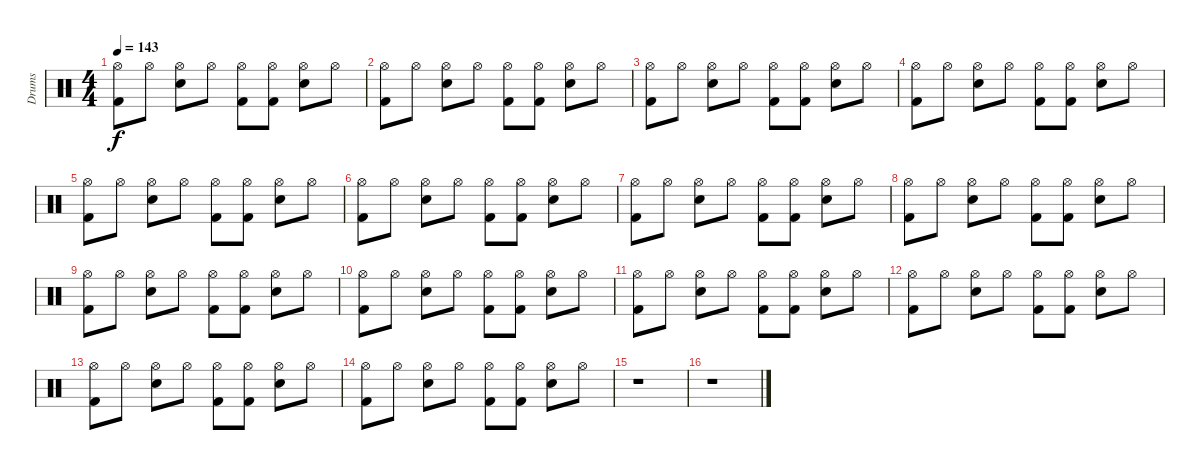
\track ("Drums" "Drums") {instrument percussion}
\staff {score}
\articulation defaults
\ts (4 4)
\tempo 143
\clef neutral
\ks c
("Hi-Hat (open)" "Kick (hit) 2").8{dy f} "Hi-Hat (open)".8 ("Hi-Hat (open)" "Snare (hit) 2").8 "Hi-Hat (open)".8 ("Hi-Hat (open)" "Kick (hit) 2").8 ("Hi-Hat (open)" "Kick (hit) 2").8 ("Hi-Hat (open)" "Snare (hit) 2").8 "Hi-Hat (open)".8 |
("Hi-Hat (open)" "Kick (hit) 2").8 "Hi-Hat (open)".8 ("Hi-Hat (open)" "Snare (hit) 2").8 "Hi-Hat (open)".8 ("Hi-Hat (open)" "Kick (hit) 2").8 ("Hi-Hat (open)" "Kick (hit) 2").8 ("Hi-Hat (open)" "Snare (hit) 2").8 "Hi-Hat (open)".8 |
("Hi-Hat (open)" "Kick (hit) 2").8 "Hi-Hat (open)".8 ("Hi-Hat (open)" "Snare (hit) 2").8 "Hi-Hat (open)".8 ("Hi-Hat (open)" "Kick (hit) 2").8 ("Hi-Hat (open)" "Kick (hit) 2").8 ("Hi-Hat (open)" "Snare (hit) 2").8 "Hi-Hat (open)".8 |
("Hi-Hat (open)" "Kick (hit) 2").8 "Hi-Hat (open)".8 ("Hi-Hat (open)" "Snare (hit) 2").8 "Hi-Hat (open)".8 ("Hi-Hat (open)" "Kick (hit) 2").8 ("Hi-Hat (open)" "Kick (hit) 2").8 ("Hi-Hat (open)" "Snare (hit) 2").8 "Hi-Hat (open)".8 |
("Hi-Hat (open)" "Kick (hit) 2").8 "Hi-Hat (open)".8 ("Hi-Hat (open)" "Snare (hit) 2").8 "Hi-Hat (open)".8 ("Hi-Hat (open)" "Kick (hit) 2").8 ("Hi-Hat (open)" "Kick (hit) 2").8 ("Hi-Hat (open)" "Snare (hit) 2").8 "Hi-Hat (open)".8 |
("Hi-Hat (open)" "Kick (hit) 2").8 "Hi-Hat (open)".8 ("Hi-Hat (open)" "Snare (hit) 2").8 "Hi-Hat (open)".8 ("Hi-Hat (open)" "Kick (hit) 2").8 ("Hi-Hat (open)" "Kick (hit) 2").8 ("Hi-Hat (open)" "Snare (hit) 2").8 "Hi-Hat (open)".8 |
("Hi-Hat (open)" "Kick (hit) 2").8 "Hi-Hat (open)".8 ("Hi-Hat (open)" "Snare (hit) 2").8 "Hi-Hat (open)".8 ("Hi-Hat (open)" "Kick (hit) 2").8 ("Hi-Hat (open)" "Kick (hit) 2").8 ("Hi-Hat (open)" "Snare (hit) 2").8 "Hi-Hat (open)".8 |
("Hi-Hat (open)" "Kick (hit) 2").8 "Hi-Hat (open)".8 ("Hi-Hat (open)" "Snare (hit) 2").8 "Hi-Hat (open)".8 ("Hi-Hat (open)" "Kick (hit) 2").8 ("Hi-Hat (open)" "Kick (hit) 2").8 ("Hi-Hat (open)" "Snare (hit) 2").8 "Hi-Hat (open)".8 |
("Hi-Hat (open)" "Kick (hit) 2").8 "Hi-Hat (open)".8 ("Hi-Hat (open)" "Snare (hit) 2").8 "Hi-Hat (open)".8 ("Hi-Hat (open)" "Kick (hit) 2").8 ("Hi-Hat (open)" "Kick (hit) 2").8 ("Hi-Hat (open)" "Snare (hit) 2").8 "Hi-Hat (open)".8 |
("Hi-Hat (open)" "Kick (hit) 2").8 "Hi-Hat (open)".8 ("Hi-Hat (open)" "Snare (hit) 2").8 "Hi-Hat (open)".8 ("Hi-Hat (open)" "Kick (hit) 2").8 ("Hi-Hat (open)" "Kick (hit) 2").8 ("Hi-Hat (open)" "Snare (hit) 2").8 "Hi-Hat (open)".8 |
("Hi-Hat (open)" "Kick (hit) 2").8 "Hi-Hat (open)".8 ("Hi-Hat (open)" "Snare (hit) 2").8 "Hi-Hat (open)".8 ("Hi-Hat (open)" "Kick (hit) 2").8 ("Hi-Hat (open)" "Kick (hit) 2").8 ("Hi-Hat (open)" "Snare (hit) 2").8 "Hi-Hat (open)".8 |
("Hi-Hat (open)" "Kick (hit) 2").8 "Hi-Hat (open)".8 ("Hi-Hat (open)" "Snare (hit) 2").8 "Hi-Hat (open)".8 ("Hi-Hat (open)" "Kick (hit) 2").8 ("Hi-Hat (open)" "Kick (hit) 2").8 ("Hi-Hat (open)" "Snare (hit) 2").8 "Hi-Hat (open)".8 |
("Hi-Hat (open)" "Kick (hit) 2").8 "Hi-Hat (open)".8 ("Hi-Hat (open)" "Snare (hit) 2").8 "Hi-Hat (open)".8 ("Hi-Hat (open)" "Kick (hit) 2").8 ("Hi-Hat (open)" "Kick (hit) 2").8 ("Hi-Hat (open)" "Snare (hit) 2").8 "Hi-Hat (open)".8 |
("Hi-Hat (open)" "Kick (hit) 2").8 "Hi-Hat (open)".8 ("Hi-Hat (open)" "Snare (hit) 2").8 "Hi-Hat (open)".8 ("Hi-Hat (open)" "Kick (hit) 2").8 ("Hi-Hat (open)" "Kick (hit) 2").8 ("Hi-Hat (open)" "Snare (hit) 2").8 "Hi-Hat (open)".8 |
r.1 |
r.1
